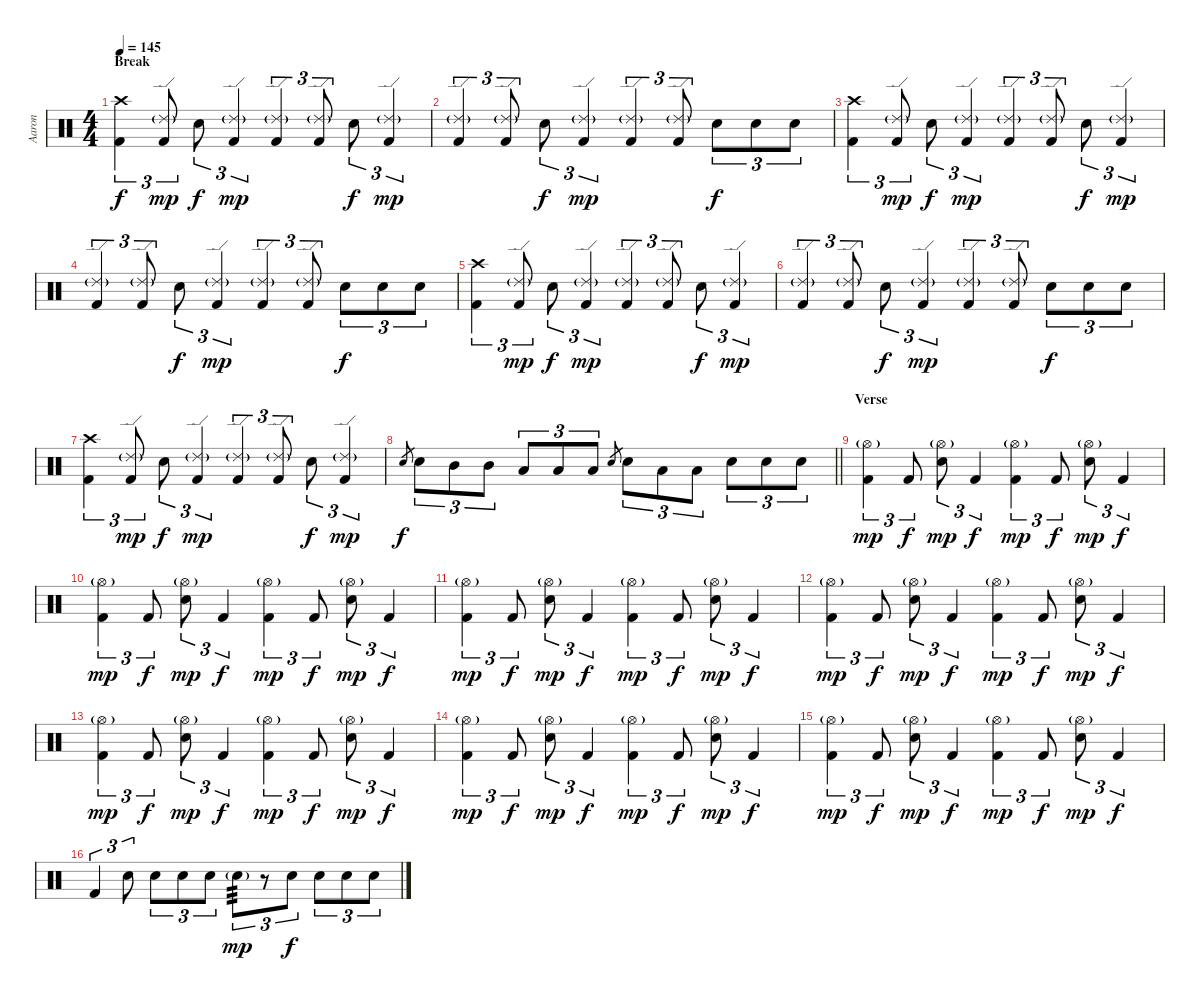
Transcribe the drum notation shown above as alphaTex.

\track ("Aaron" "Aaron") {instrument percussion}
\staff {score}
\articulation defaults
\ts (4 4)
\section ("" "Break")
\tempo 145
\clef neutral
\ks c
("Crash high (hit)" "Kick (hit) 2").4{tu (3 2) dy f} ("Ride (edge) 2"{g} "Kick (hit) 2").8{tu (3 2) dy mp} "Electric Snare (hit)".8{tu (3 2) dy f} ("Ride (edge) 2"{g} "Kick (hit) 2").4{tu (3 2) dy mp} ("Ride (edge) 2"{g} "Kick (hit) 2").4{tu (3 2)} ("Ride (edge) 2"{g} "Kick (hit) 2").8{tu (3 2)} "Electric Snare (hit)".8{tu (3 2) dy f} ("Ride (edge) 2"{g} "Kick (hit) 2").4{tu (3 2) dy mp} |
("Ride (edge) 2"{g} "Kick (hit) 2").4{tu (3 2)} ("Ride (edge) 2"{g} "Kick (hit) 2").8{tu (3 2)} "Electric Snare (hit)".8{tu (3 2) dy f} ("Ride (edge) 2"{g} "Kick (hit) 2").4{tu (3 2) dy mp} ("Ride (edge) 2"{g} "Kick (hit) 2").4{tu (3 2)} ("Ride (edge) 2"{g} "Kick (hit) 2").8{tu (3 2)} "Electric Snare (hit)".8{tu (3 2) dy f} "Electric Snare (hit)".8{tu (3 2)} "Electric Snare (hit)".8{tu (3 2)} |
("Crash high (hit)" "Kick (hit) 2").4{tu (3 2)} ("Ride (edge) 2"{g} "Kick (hit) 2").8{tu (3 2) dy mp} "Electric Snare (hit)".8{tu (3 2) dy f} ("Ride (edge) 2"{g} "Kick (hit) 2").4{tu (3 2) dy mp} ("Ride (edge) 2"{g} "Kick (hit) 2").4{tu (3 2)} ("Ride (edge) 2"{g} "Kick (hit) 2").8{tu (3 2)} "Electric Snare (hit)".8{tu (3 2) dy f} ("Ride (edge) 2"{g} "Kick (hit) 2").4{tu (3 2) dy mp} |
("Ride (edge) 2"{g} "Kick (hit) 2").4{tu (3 2)} ("Ride (edge) 2"{g} "Kick (hit) 2").8{tu (3 2)} "Electric Snare (hit)".8{tu (3 2) dy f} ("Ride (edge) 2"{g} "Kick (hit) 2").4{tu (3 2) dy mp} ("Ride (edge) 2"{g} "Kick (hit) 2").4{tu (3 2)} ("Ride (edge) 2"{g} "Kick (hit) 2").8{tu (3 2)} "Electric Snare (hit)".8{tu (3 2) dy f} "Electric Snare (hit)".8{tu (3 2)} "Electric Snare (hit)".8{tu (3 2)} |
("Crash high (hit)" "Kick (hit) 2").4{tu (3 2)} ("Ride (edge) 2"{g} "Kick (hit) 2").8{tu (3 2) dy mp} "Electric Snare (hit)".8{tu (3 2) dy f} ("Ride (edge) 2"{g} "Kick (hit) 2").4{tu (3 2) dy mp} ("Ride (edge) 2"{g} "Kick (hit) 2").4{tu (3 2)} ("Ride (edge) 2"{g} "Kick (hit) 2").8{tu (3 2)} "Electric Snare (hit)".8{tu (3 2) dy f} ("Ride (edge) 2"{g} "Kick (hit) 2").4{tu (3 2) dy mp} |
("Ride (edge) 2"{g} "Kick (hit) 2").4{tu (3 2)} ("Ride (edge) 2"{g} "Kick (hit) 2").8{tu (3 2)} "Electric Snare (hit)".8{tu (3 2) dy f} ("Ride (edge) 2"{g} "Kick (hit) 2").4{tu (3 2) dy mp} ("Ride (edge) 2"{g} "Kick (hit) 2").4{tu (3 2)} ("Ride (edge) 2"{g} "Kick (hit) 2").8{tu (3 2)} "Electric Snare (hit)".8{tu (3 2) dy f} "Electric Snare (hit)".8{tu (3 2)} "Electric Snare (hit)".8{tu (3 2)} |
("Crash high (hit)" "Kick (hit) 2").4{tu (3 2)} ("Ride (edge) 2"{g} "Kick (hit) 2").8{tu (3 2) dy mp} "Electric Snare (hit)".8{tu (3 2) dy f} ("Ride (edge) 2"{g} "Kick (hit) 2").4{tu (3 2) dy mp} ("Ride (edge) 2"{g} "Kick (hit) 2").4{tu (3 2)} ("Ride (edge) 2"{g} "Kick (hit) 2").8{tu (3 2)} "Electric Snare (hit)".8{tu (3 2) dy f} ("Ride (edge) 2"{g} "Kick (hit) 2").4{tu (3 2) dy mp} |
\barLineRight lightlight "Electric Snare (hit)".8{gr dy f} "Electric Snare (hit)".8{tu (3 2)} "Mid Tom (hit)".8{tu (3 2)} "Mid Tom (hit)".8{tu (3 2)} "Low Tom (hit)".8{tu (3 2)} "Low Tom (hit)".8{tu (3 2)} "Low Tom (hit)".8{tu (3 2)} "Electric Snare (hit)".8{gr} "Electric Snare (hit)".8{tu (3 2)} "Low Tom (hit)".8{tu (3 2)} "Low Tom (hit)".8{tu (3 2)} "Electric Snare (hit)".8{tu (3 2)} "Electric Snare (hit)".8{tu (3 2)} "Electric Snare (hit)".8{tu (3 2)}
|
\section ("" "Verse")
("Hi-Hat (open)"{g} "Kick (hit) 2").4{tu (3 2) dy mp} "Kick (hit) 2".8{tu (3 2) dy f} ("Hi-Hat (open)"{g} "Electric Snare (hit)").8{tu (3 2) dy mp} "Kick (hit) 2".4{tu (3 2) dy f} ("Hi-Hat (open)"{g} "Kick (hit) 2").4{tu (3 2) dy mp} "Kick (hit) 2".8{tu (3 2) dy f} ("Hi-Hat (open)"{g} "Electric Snare (hit)").8{tu (3 2) dy mp} "Kick (hit) 2".4{tu (3 2) dy f} |
("Hi-Hat (open)"{g} "Kick (hit) 2").4{tu (3 2) dy mp} "Kick (hit) 2".8{tu (3 2) dy f} ("Hi-Hat (open)"{g} "Electric Snare (hit)").8{tu (3 2) dy mp} "Kick (hit) 2".4{tu (3 2) dy f} ("Hi-Hat (open)"{g} "Kick (hit) 2").4{tu (3 2) dy mp} "Kick (hit) 2".8{tu (3 2) dy f} ("Hi-Hat (open)"{g} "Electric Snare (hit)").8{tu (3 2) dy mp} "Kick (hit) 2".4{tu (3 2) dy f} |
("Hi-Hat (open)"{g} "Kick (hit) 2").4{tu (3 2) dy mp} "Kick (hit) 2".8{tu (3 2) dy f} ("Hi-Hat (open)"{g} "Electric Snare (hit)").8{tu (3 2) dy mp} "Kick (hit) 2".4{tu (3 2) dy f} ("Hi-Hat (open)"{g} "Kick (hit) 2").4{tu (3 2) dy mp} "Kick (hit) 2".8{tu (3 2) dy f} ("Hi-Hat (open)"{g} "Electric Snare (hit)").8{tu (3 2) dy mp} "Kick (hit) 2".4{tu (3 2) dy f} |
("Hi-Hat (open)"{g} "Kick (hit) 2").4{tu (3 2) dy mp} "Kick (hit) 2".8{tu (3 2) dy f} ("Hi-Hat (open)"{g} "Electric Snare (hit)").8{tu (3 2) dy mp} "Kick (hit) 2".4{tu (3 2) dy f} ("Hi-Hat (open)"{g} "Kick (hit) 2").4{tu (3 2) dy mp} "Kick (hit) 2".8{tu (3 2) dy f} ("Hi-Hat (open)"{g} "Electric Snare (hit)").8{tu (3 2) dy mp} "Kick (hit) 2".4{tu (3 2) dy f} |
("Hi-Hat (open)"{g} "Kick (hit) 2").4{tu (3 2) dy mp} "Kick (hit) 2".8{tu (3 2) dy f} ("Hi-Hat (open)"{g} "Electric Snare (hit)").8{tu (3 2) dy mp} "Kick (hit) 2".4{tu (3 2) dy f} ("Hi-Hat (open)"{g} "Kick (hit) 2").4{tu (3 2) dy mp} "Kick (hit) 2".8{tu (3 2) dy f} ("Hi-Hat (open)"{g} "Electric Snare (hit)").8{tu (3 2) dy mp} "Kick (hit) 2".4{tu (3 2) dy f} |
("Hi-Hat (open)"{g} "Kick (hit) 2").4{tu (3 2) dy mp} "Kick (hit) 2".8{tu (3 2) dy f} ("Hi-Hat (open)"{g} "Electric Snare (hit)").8{tu (3 2) dy mp} "Kick (hit) 2".4{tu (3 2) dy f} ("Hi-Hat (open)"{g} "Kick (hit) 2").4{tu (3 2) dy mp} "Kick (hit) 2".8{tu (3 2) dy f} ("Hi-Hat (open)"{g} "Electric Snare (hit)").8{tu (3 2) dy mp} "Kick (hit) 2".4{tu (3 2) dy f} |
("Hi-Hat (open)"{g} "Kick (hit) 2").4{tu (3 2) dy mp} "Kick (hit) 2".8{tu (3 2) dy f} ("Hi-Hat (open)"{g} "Electric Snare (hit)").8{tu (3 2) dy mp} "Kick (hit) 2".4{tu (3 2) dy f} ("Hi-Hat (open)"{g} "Kick (hit) 2").4{tu (3 2) dy mp} "Kick (hit) 2".8{tu (3 2) dy f} ("Hi-Hat (open)"{g} "Electric Snare (hit)").8{tu (3 2) dy mp} "Kick (hit) 2".4{tu (3 2) dy f} |
"Kick (hit) 2".4{tu (3 2)} "Electric Snare (hit)".8{tu (3 2)} "Electric Snare (hit)".8{tu (3 2)} "Electric Snare (hit)".8{tu (3 2)} "Electric Snare (hit)".8{tu (3 2)} "Electric Snare (hit)"{g}.8{tu (3 2) tp 3 dy mp} r.8{tu (3 2)} "Electric Snare (hit)".8{tu (3 2) dy f} "Electric Snare (hit)".8{tu (3 2)} "Electric Snare (hit)".8{tu (3 2)} "Electric Snare (hit)".8{tu (3 2)}
